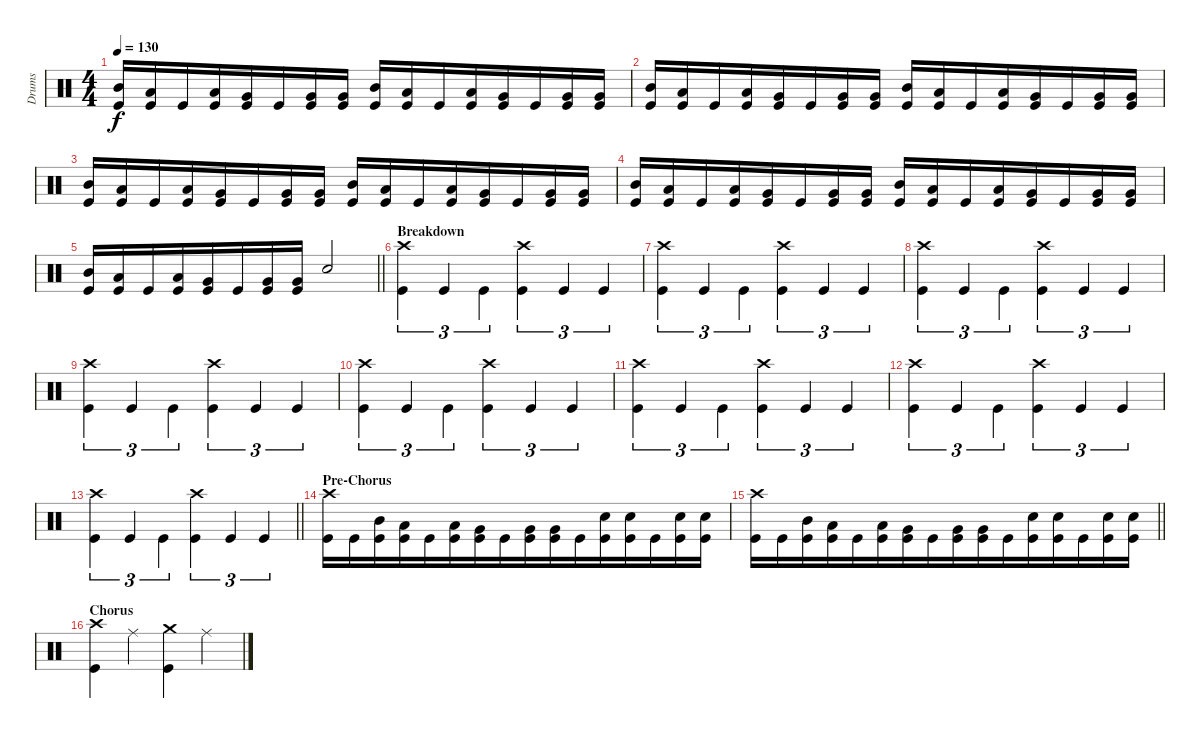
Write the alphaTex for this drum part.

\track ("Drums" "Drums") {instrument percussion}
\staff {score}
\articulation defaults
\ts (4 4)
\tempo 130
\clef neutral
\ks c
("Mid Tom (hit)" "Kick (hit)").16{dy f beam merge} ("Low Tom (hit)" "Kick (hit)").16{beam merge} "Kick (hit)".16 ("Low Tom (hit)" "Kick (hit)").16{beam merge} ("Very Low Tom (hit)" "Kick (hit)").16{beam merge} "Kick (hit)".16{beam merge} ("Very Low Tom (hit)" "Kick (hit)").16 ("Very Low Tom (hit)" "Kick (hit)").16 ("Mid Tom (hit)" "Kick (hit)").16{beam merge} ("Low Tom (hit)" "Kick (hit)").16{beam merge} "Kick (hit)".16 ("Low Tom (hit)" "Kick (hit)").16{beam merge} ("Very Low Tom (hit)" "Kick (hit)").16{beam merge} "Kick (hit)".16{beam merge} ("Very Low Tom (hit)" "Kick (hit)").16 ("Very Low Tom (hit)" "Kick (hit)").16 |
("Mid Tom (hit)" "Kick (hit)").16{beam merge} ("Low Tom (hit)" "Kick (hit)").16{beam merge} "Kick (hit)".16 ("Low Tom (hit)" "Kick (hit)").16{beam merge} ("Very Low Tom (hit)" "Kick (hit)").16{beam merge} "Kick (hit)".16{beam merge} ("Very Low Tom (hit)" "Kick (hit)").16 ("Very Low Tom (hit)" "Kick (hit)").16 ("Mid Tom (hit)" "Kick (hit)").16{beam merge} ("Low Tom (hit)" "Kick (hit)").16{beam merge} "Kick (hit)".16 ("Low Tom (hit)" "Kick (hit)").16{beam merge} ("Very Low Tom (hit)" "Kick (hit)").16{beam merge} "Kick (hit)".16{beam merge} ("Very Low Tom (hit)" "Kick (hit)").16 ("Very Low Tom (hit)" "Kick (hit)").16 |
("Mid Tom (hit)" "Kick (hit)").16{beam merge} ("Low Tom (hit)" "Kick (hit)").16{beam merge} "Kick (hit)".16 ("Low Tom (hit)" "Kick (hit)").16{beam merge} ("Very Low Tom (hit)" "Kick (hit)").16{beam merge} "Kick (hit)".16{beam merge} ("Very Low Tom (hit)" "Kick (hit)").16 ("Very Low Tom (hit)" "Kick (hit)").16 ("Mid Tom (hit)" "Kick (hit)").16{beam merge} ("Low Tom (hit)" "Kick (hit)").16{beam merge} "Kick (hit)".16 ("Low Tom (hit)" "Kick (hit)").16{beam merge} ("Very Low Tom (hit)" "Kick (hit)").16{beam merge} "Kick (hit)".16{beam merge} ("Very Low Tom (hit)" "Kick (hit)").16 ("Very Low Tom (hit)" "Kick (hit)").16 |
("Mid Tom (hit)" "Kick (hit)").16{beam merge} ("Low Tom (hit)" "Kick (hit)").16{beam merge} "Kick (hit)".16 ("Low Tom (hit)" "Kick (hit)").16{beam merge} ("Very Low Tom (hit)" "Kick (hit)").16{beam merge} "Kick (hit)".16{beam merge} ("Very Low Tom (hit)" "Kick (hit)").16 ("Very Low Tom (hit)" "Kick (hit)").16 ("Mid Tom (hit)" "Kick (hit)").16{beam merge} ("Low Tom (hit)" "Kick (hit)").16{beam merge} "Kick (hit)".16 ("Low Tom (hit)" "Kick (hit)").16{beam merge} ("Very Low Tom (hit)" "Kick (hit)").16{beam merge} "Kick (hit)".16{beam merge} ("Very Low Tom (hit)" "Kick (hit)").16 ("Very Low Tom (hit)" "Kick (hit)").16 |
\barLineRight lightlight
("Mid Tom (hit)" "Kick (hit)").16{beam merge} ("Low Tom (hit)" "Kick (hit)").16{beam merge} "Kick (hit)".16 ("Low Tom (hit)" "Kick (hit)").16{beam merge} ("Very Low Tom (hit)" "Kick (hit)").16{beam merge} "Kick (hit)".16{beam merge} ("Very Low Tom (hit)" "Kick (hit)").16 ("Very Low Tom (hit)" "Kick (hit)").16{beam merge} "Snare (hit) 2".2 |
\section ("" "Breakdown")
("Crash high (hit)" "Kick (hit)").4{tu (3 2)} "Kick (hit)".4{tu (3 2)} "Kick (hit)".4{tu (3 2) beam merge} ("Crash high (hit)" "Kick (hit)").4{tu (3 2)} "Kick (hit)".4{tu (3 2)} "Kick (hit)".4{tu (3 2)} |
("Crash high (hit)" "Kick (hit)").4{tu (3 2)} "Kick (hit)".4{tu (3 2)} "Kick (hit)".4{tu (3 2) beam merge} ("Crash high (hit)" "Kick (hit)").4{tu (3 2)} "Kick (hit)".4{tu (3 2)} "Kick (hit)".4{tu (3 2)} |
("Crash high (hit)" "Kick (hit)").4{tu (3 2)} "Kick (hit)".4{tu (3 2)} "Kick (hit)".4{tu (3 2) beam merge} ("Crash high (hit)" "Kick (hit)").4{tu (3 2)} "Kick (hit)".4{tu (3 2)} "Kick (hit)".4{tu (3 2)} |
("Crash high (hit)" "Kick (hit)").4{tu (3 2)} "Kick (hit)".4{tu (3 2)} "Kick (hit)".4{tu (3 2) beam merge} ("Crash high (hit)" "Kick (hit)").4{tu (3 2)} "Kick (hit)".4{tu (3 2)} "Kick (hit)".4{tu (3 2)} |
("Crash high (hit)" "Kick (hit)").4{tu (3 2)} "Kick (hit)".4{tu (3 2)} "Kick (hit)".4{tu (3 2) beam merge} ("Crash high (hit)" "Kick (hit)").4{tu (3 2)} "Kick (hit)".4{tu (3 2)} "Kick (hit)".4{tu (3 2)} |
("Crash high (hit)" "Kick (hit)").4{tu (3 2)} "Kick (hit)".4{tu (3 2)} "Kick (hit)".4{tu (3 2) beam merge} ("Crash high (hit)" "Kick (hit)").4{tu (3 2)} "Kick (hit)".4{tu (3 2)} "Kick (hit)".4{tu (3 2)} |
("Crash high (hit)" "Kick (hit)").4{tu (3 2)} "Kick (hit)".4{tu (3 2)} "Kick (hit)".4{tu (3 2) beam merge} ("Crash high (hit)" "Kick (hit)").4{tu (3 2)} "Kick (hit)".4{tu (3 2)} "Kick (hit)".4{tu (3 2)} |
\barLineRight lightlight
("Crash high (hit)" "Kick (hit)").4{tu (3 2)} "Kick (hit)".4{tu (3 2)} "Kick (hit)".4{tu (3 2) beam merge} ("Crash high (hit)" "Kick (hit)").4{tu (3 2)} "Kick (hit)".4{tu (3 2)} "Kick (hit)".4{tu (3 2)} |
\section ("" "Pre-Chorus")
("Crash high (hit)" "Kick (hit)").16{beam merge} "Kick (hit)".16 ("Mid Tom (hit)" "Kick (hit)").16{beam merge} ("Low Tom (hit)" "Kick (hit)").16{beam merge} "Kick (hit)".16 ("Low Tom (hit)" "Kick (hit)").16{beam merge} ("Very Low Tom (hit)" "Kick (hit)").16{beam merge} "Kick (hit)".16{beam merge} ("Very Low Tom (hit)" "Kick (hit)").16 ("Very Low Tom (hit)" "Kick (hit)").16{beam merge} "Kick (hit)".16{beam merge} ("Snare (hit) 2" "Kick (hit)").16{beam merge} ("Snare (hit) 2" "Kick (hit)").16 "Kick (hit)".16{beam merge} ("Snare (hit) 2" "Kick (hit)").16{beam merge} ("Snare (hit) 2" "Kick (hit)").16 |
\barLineRight lightlight
("Crash high (hit)" "Kick (hit)").16{beam merge} "Kick (hit)".16 ("Mid Tom (hit)" "Kick (hit)").16{beam merge} ("Low Tom (hit)" "Kick (hit)").16{beam merge} "Kick (hit)".16 ("Low Tom (hit)" "Kick (hit)").16{beam merge} ("Very Low Tom (hit)" "Kick (hit)").16{beam merge} "Kick (hit)".16{beam merge} ("Very Low Tom (hit)" "Kick (hit)").16 ("Very Low Tom (hit)" "Kick (hit)").16{beam merge} "Kick (hit)".16{beam merge} ("Snare (hit) 2" "Kick (hit)").16{beam merge} ("Snare (hit) 2" "Kick (hit)").16 "Kick (hit)".16{beam merge} ("Snare (hit) 2" "Kick (hit)").16{beam merge} ("Snare (hit) 2" "Kick (hit)").16 |
\section ("" "Chorus")
("Crash high (hit)" "Kick (hit)").4 "Ride (middle)".4 ("Crash medium (hit)" "Kick (hit)").4 "Ride (middle)".4
